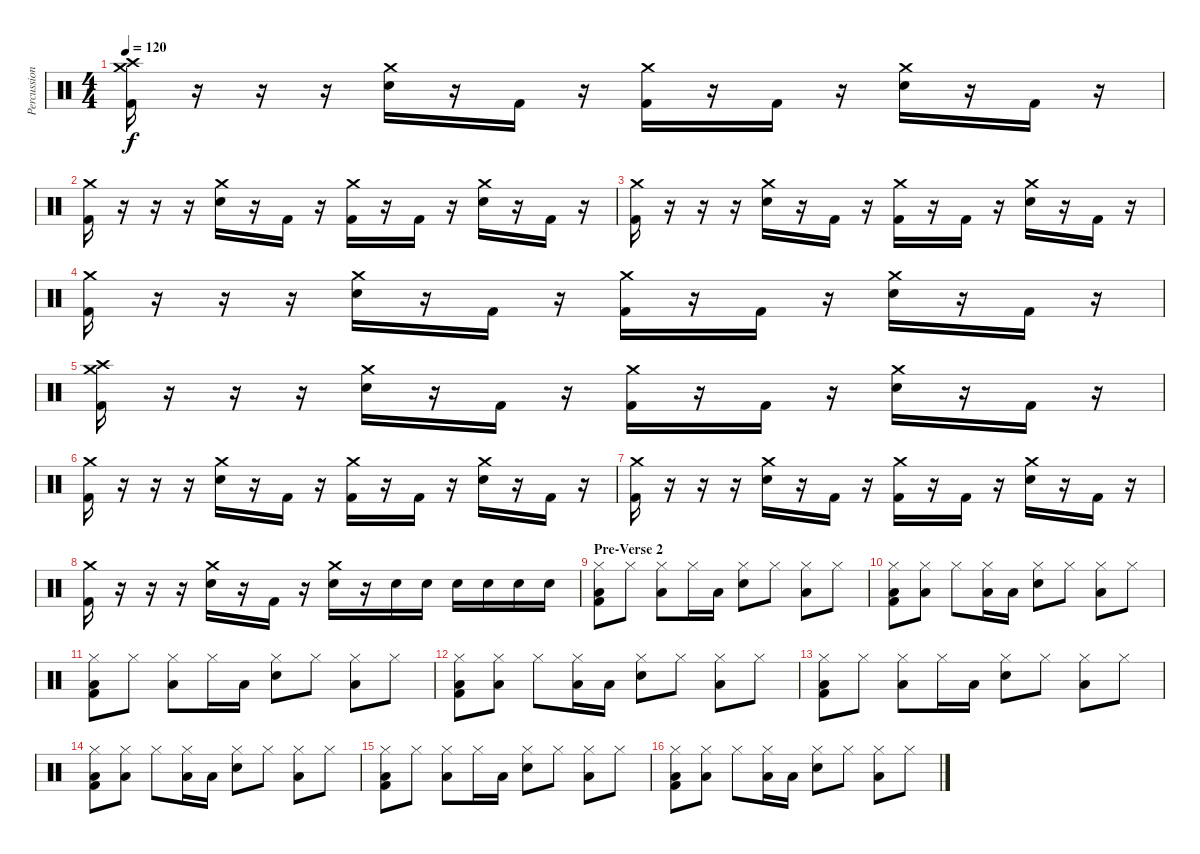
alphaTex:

\track ("Percussion" "Percussion") {instrument percussion}
\staff {score}
\articulation defaults
\ts (4 4)
\tempo 120
\clef neutral
\ks c
("Kick (hit) 2" "Crash medium (hit)" "Crash high (hit)").16{dy f} r.16 r.16 r.16 ("Snare (hit) 2" "Crash medium (hit)").16 r.16 "Kick (hit) 2".16 r.16 ("Kick (hit) 2" "Crash medium (hit)").16 r.16 "Kick (hit) 2".16 r.16 ("Snare (hit) 2" "Crash medium (hit)").16 r.16 "Kick (hit) 2".16 r.16 |
("Kick (hit) 2" "Crash medium (hit)").16 r.16 r.16 r.16 ("Snare (hit) 2" "Crash medium (hit)").16 r.16 "Kick (hit) 2".16 r.16 ("Kick (hit) 2" "Crash medium (hit)").16 r.16 "Kick (hit) 2".16 r.16 ("Snare (hit) 2" "Crash medium (hit)").16 r.16 "Kick (hit) 2".16 r.16 |
("Kick (hit) 2" "Crash medium (hit)").16 r.16 r.16 r.16 ("Snare (hit) 2" "Crash medium (hit)").16 r.16 "Kick (hit) 2".16 r.16 ("Kick (hit) 2" "Crash medium (hit)").16 r.16 "Kick (hit) 2".16 r.16 ("Snare (hit) 2" "Crash medium (hit)").16 r.16 "Kick (hit) 2".16 r.16 |
("Kick (hit) 2" "Crash medium (hit)").16 r.16 r.16 r.16 ("Snare (hit) 2" "Crash medium (hit)").16 r.16 "Kick (hit) 2".16 r.16 ("Kick (hit) 2" "Crash medium (hit)").16 r.16 "Kick (hit) 2".16 r.16 ("Snare (hit) 2" "Crash medium (hit)").16 r.16 "Kick (hit) 2".16 r.16 |
("Kick (hit) 2" "Crash medium (hit)" "Crash high (hit)").16 r.16 r.16 r.16 ("Snare (hit) 2" "Crash medium (hit)").16 r.16 "Kick (hit) 2".16 r.16 ("Kick (hit) 2" "Crash medium (hit)").16 r.16 "Kick (hit) 2".16 r.16 ("Snare (hit) 2" "Crash medium (hit)").16 r.16 "Kick (hit) 2".16 r.16 |
("Kick (hit) 2" "Crash medium (hit)").16 r.16 r.16 r.16 ("Snare (hit) 2" "Crash medium (hit)").16 r.16 "Kick (hit) 2".16 r.16 ("Kick (hit) 2" "Crash medium (hit)").16 r.16 "Kick (hit) 2".16 r.16 ("Snare (hit) 2" "Crash medium (hit)").16 r.16 "Kick (hit) 2".16 r.16 |
("Kick (hit) 2" "Crash medium (hit)").16 r.16 r.16 r.16 ("Snare (hit) 2" "Crash medium (hit)").16 r.16 "Kick (hit) 2".16 r.16 ("Kick (hit) 2" "Crash medium (hit)").16 r.16 "Kick (hit) 2".16 r.16 ("Snare (hit) 2" "Crash medium (hit)").16 r.16 "Kick (hit) 2".16 r.16 |
("Kick (hit) 2" "Crash medium (hit)").16 r.16 r.16 r.16 ("Snare (hit) 2" "Crash medium (hit)").16 r.16 "Kick (hit) 2".16 r.16 ("Snare (hit) 2" "Crash medium (hit)").16 r.16 "Snare (hit) 2".16 "Snare (hit) 2".16 "Snare (hit) 2".16 "Snare (hit) 2".16 "Snare (hit) 2".16 "Snare (hit) 2".16 |
\section ("" "Pre-Verse 2")
("Kick (hit) 2" "Low Tom (hit)" "Hi-Hat (closed)").8 "Hi-Hat (closed)".8 ("Low Tom (hit)" "Hi-Hat (closed)").8 "Hi-Hat (closed)".16 "Low Tom (hit)".16 ("Snare (hit) 2" "Hi-Hat (closed)").8 "Hi-Hat (closed)".8 ("Low Tom (hit)" "Hi-Hat (closed)").8 "Hi-Hat (closed)".8 |
("Kick (hit) 2" "Low Tom (hit)" "Hi-Hat (closed)").8 ("Low Tom (hit)" "Hi-Hat (closed)").8 "Hi-Hat (closed)".8 ("Low Tom (hit)" "Hi-Hat (closed)").16 "Low Tom (hit)".16 ("Snare (hit) 2" "Hi-Hat (closed)").8 "Hi-Hat (closed)".8 ("Low Tom (hit)" "Hi-Hat (closed)").8 "Hi-Hat (closed)".8 |
("Kick (hit) 2" "Low Tom (hit)" "Hi-Hat (closed)").8 "Hi-Hat (closed)".8 ("Low Tom (hit)" "Hi-Hat (closed)").8 "Hi-Hat (closed)".16 "Low Tom (hit)".16 ("Snare (hit) 2" "Hi-Hat (closed)").8 "Hi-Hat (closed)".8 ("Low Tom (hit)" "Hi-Hat (closed)").8 "Hi-Hat (closed)".8 |
("Kick (hit) 2" "Low Tom (hit)" "Hi-Hat (closed)").8 ("Low Tom (hit)" "Hi-Hat (closed)").8 "Hi-Hat (closed)".8 ("Low Tom (hit)" "Hi-Hat (closed)").16 "Low Tom (hit)".16 ("Snare (hit) 2" "Hi-Hat (closed)").8 "Hi-Hat (closed)".8 ("Low Tom (hit)" "Hi-Hat (closed)").8 "Hi-Hat (closed)".8 |
("Kick (hit) 2" "Low Tom (hit)" "Hi-Hat (closed)").8 "Hi-Hat (closed)".8 ("Low Tom (hit)" "Hi-Hat (closed)").8 "Hi-Hat (closed)".16 "Low Tom (hit)".16 ("Snare (hit) 2" "Hi-Hat (closed)").8 "Hi-Hat (closed)".8 ("Low Tom (hit)" "Hi-Hat (closed)").8 "Hi-Hat (closed)".8 |
("Kick (hit) 2" "Low Tom (hit)" "Hi-Hat (closed)").8 ("Low Tom (hit)" "Hi-Hat (closed)").8 "Hi-Hat (closed)".8 ("Low Tom (hit)" "Hi-Hat (closed)").16 "Low Tom (hit)".16 ("Snare (hit) 2" "Hi-Hat (closed)").8 "Hi-Hat (closed)".8 ("Low Tom (hit)" "Hi-Hat (closed)").8 "Hi-Hat (closed)".8 |
("Kick (hit) 2" "Low Tom (hit)" "Hi-Hat (closed)").8 "Hi-Hat (closed)".8 ("Low Tom (hit)" "Hi-Hat (closed)").8 "Hi-Hat (closed)".16 "Low Tom (hit)".16 ("Snare (hit) 2" "Hi-Hat (closed)").8 "Hi-Hat (closed)".8 ("Low Tom (hit)" "Hi-Hat (closed)").8 "Hi-Hat (closed)".8 |
("Kick (hit) 2" "Low Tom (hit)" "Hi-Hat (closed)").8 ("Low Tom (hit)" "Hi-Hat (closed)").8 "Hi-Hat (closed)".8 ("Low Tom (hit)" "Hi-Hat (closed)").16 "Low Tom (hit)".16 ("Snare (hit) 2" "Hi-Hat (closed)").8 "Hi-Hat (closed)".8 ("Low Tom (hit)" "Hi-Hat (closed)").8 "Hi-Hat (closed)".8
